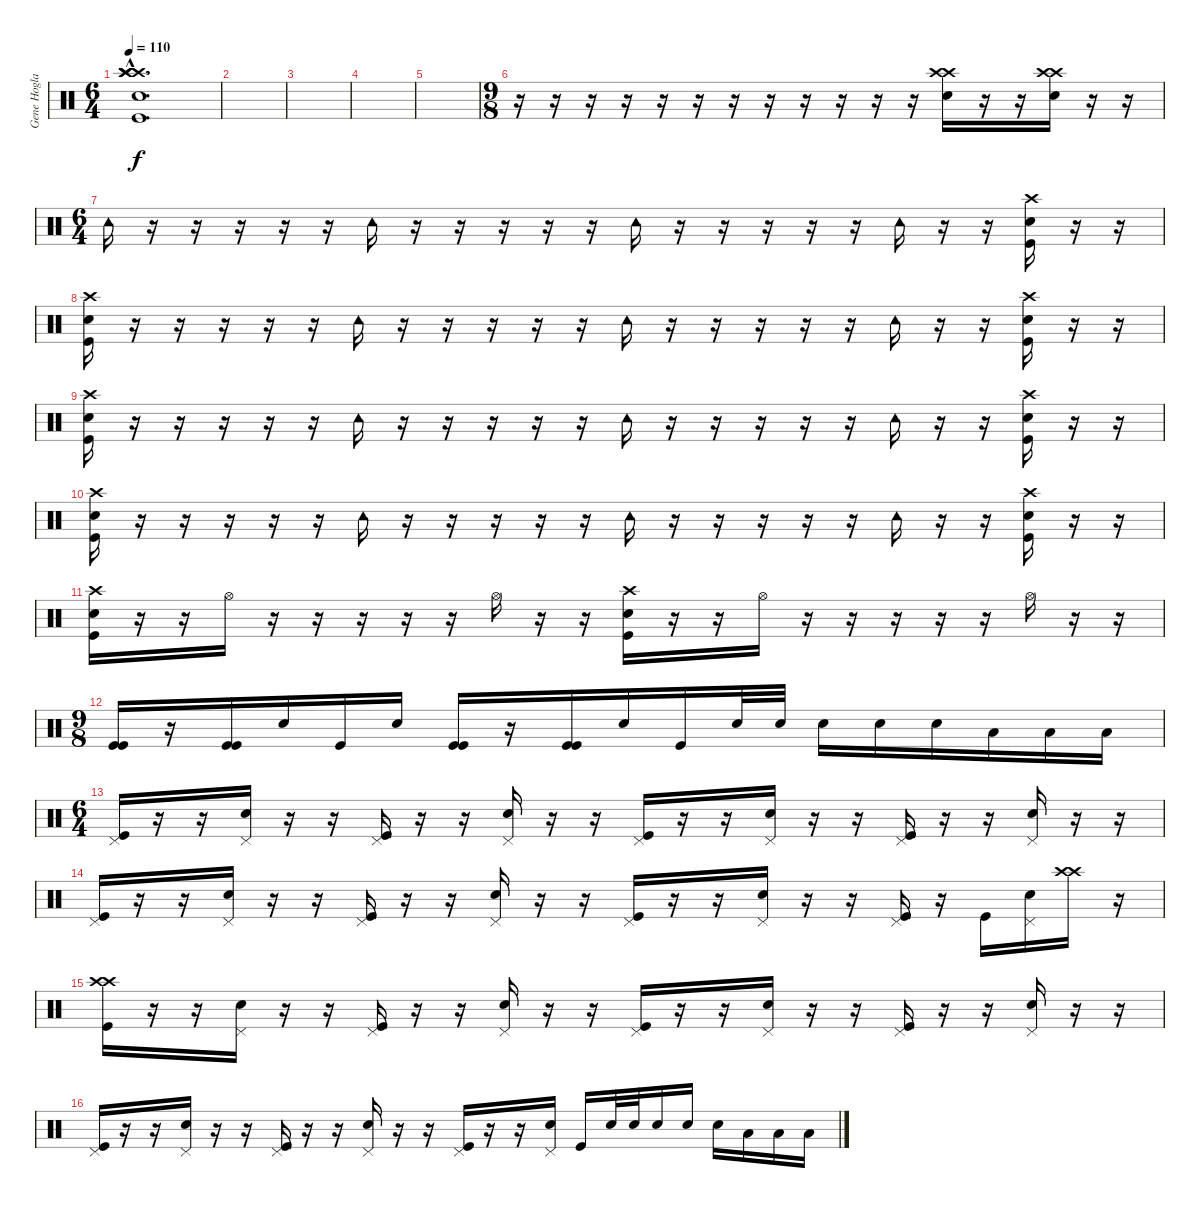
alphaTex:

\track ("Gene Hoglan" "Gene Hogla") {instrument percussion}
\staff {score}
\articulation defaults
\ts (6 4)
\tempo 110
\clef neutral
\ks c
("Crash high (hit)"{hac} "Crash high (hit)"{hac} "Crash high (hit)"{hac} "Crash high (hit)"{hac} "Snare (hit) 2"{hac} "Kick (hit)"{hac}).1{d dy f} |
|
|
|
|
\ts (9 8)
r.16 r.16 r.16 r.16 r.16 r.16 r.16 r.16 r.16 r.16 r.16 r.16 ("Crash high (hit)" "Crash high (hit)" "Snare (hit) 2").16 r.16 r.16 ("Crash high (hit)" "Crash high (hit)" "Snare (hit) 2").16 r.16 r.16 |
\ts (6 4)
"Tambourine (hit)".16 r.16 r.16 r.16 r.16 r.16 "Tambourine (hit)".16 r.16 r.16 r.16 r.16 r.16 "Tambourine (hit)".16 r.16 r.16 r.16 r.16 r.16 "Tambourine (hit)".16 r.16 r.16 ("Crash high (hit)" "Snare (hit) 2" "Kick (hit)").16 r.16 r.16 |
("Crash high (hit)" "Snare (hit) 2" "Kick (hit)").16 r.16 r.16 r.16 r.16 r.16 "Tambourine (hit)".16 r.16 r.16 r.16 r.16 r.16 "Tambourine (hit)".16 r.16 r.16 r.16 r.16 r.16 "Tambourine (hit)".16 r.16 r.16 ("Crash high (hit)" "Snare (hit) 2" "Kick (hit)").16 r.16 r.16 |
("Crash high (hit)" "Snare (hit) 2" "Kick (hit)").16 r.16 r.16 r.16 r.16 r.16 "Tambourine (hit)".16 r.16 r.16 r.16 r.16 r.16 "Tambourine (hit)".16 r.16 r.16 r.16 r.16 r.16 "Tambourine (hit)".16 r.16 r.16 ("Crash high (hit)" "Snare (hit) 2" "Kick (hit)").16 r.16 r.16 |
("Crash high (hit)" "Snare (hit) 2" "Kick (hit)").16 r.16 r.16 r.16 r.16 r.16 "Tambourine (hit)".16 r.16 r.16 r.16 r.16 r.16 "Tambourine (hit)".16 r.16 r.16 r.16 r.16 r.16 "Tambourine (hit)".16 r.16 r.16 ("Crash high (hit)" "Snare (hit) 2" "Kick (hit)").16 r.16 r.16 |
("Crash high (hit)" "Snare (hit) 2" "Kick (hit)").16 r.16 r.16 "Hi-Hat (open)".16 r.16 r.16 r.16 r.16 r.16 "Hi-Hat (open)".16 r.16 r.16 ("Crash high (hit)" "Snare (hit) 2" "Kick (hit)").16 r.16 r.16 "Hi-Hat (open)".16 r.16 r.16 r.16 r.16 r.16 "Hi-Hat (open)".16 r.16 r.16 |
\ts (9 8)
("Kick (hit)" "Kick (hit)").16 r.16 ("Kick (hit)" "Kick (hit)").16 "Snare (hit) 2".16 "Kick (hit)".16 "Snare (hit) 2".16 ("Kick (hit)" "Kick (hit)").16 r.16 ("Kick (hit)" "Kick (hit)").16 "Snare (hit) 2".16 "Kick (hit)".16 "Snare (hit) 2".32 "Snare (hit) 2".32 "Snare (hit) 2".16 "Snare (hit) 2".16 "Snare (hit) 2".16 "Low Tom (hit)".16 "Low Tom (hit)".16 "Low Tom (hit)".16 |
\ts (6 4)
("Pedal Hi-Hat (hit)" "Kick (hit)").16 r.16 r.16 ("Pedal Hi-Hat (hit)" "Snare (hit) 2").16 r.16 r.16 ("Pedal Hi-Hat (hit)" "Kick (hit)").16 r.16 r.16 ("Pedal Hi-Hat (hit)" "Snare (hit) 2").16 r.16 r.16 ("Pedal Hi-Hat (hit)" "Kick (hit)").16 r.16 r.16 ("Pedal Hi-Hat (hit)" "Snare (hit) 2").16 r.16 r.16 ("Pedal Hi-Hat (hit)" "Kick (hit)").16 r.16 r.16 ("Pedal Hi-Hat (hit)" "Snare (hit) 2").16 r.16 r.16 |
("Pedal Hi-Hat (hit)" "Kick (hit)").16 r.16 r.16 ("Pedal Hi-Hat (hit)" "Snare (hit) 2").16 r.16 r.16 ("Pedal Hi-Hat (hit)" "Kick (hit)").16 r.16 r.16 ("Pedal Hi-Hat (hit)" "Snare (hit) 2").16 r.16 r.16 ("Pedal Hi-Hat (hit)" "Kick (hit)").16 r.16 r.16 ("Pedal Hi-Hat (hit)" "Snare (hit) 2").16 r.16 r.16 ("Pedal Hi-Hat (hit)" "Kick (hit)").16 r.16 "Kick (hit)".16 ("Pedal Hi-Hat (hit)" "Snare (hit) 2").16 ("Crash high (hit)" "Crash high (hit)").16 r.16 |
("Crash high (hit)" "Crash high (hit)" "Kick (hit)").16 r.16 r.16 ("Pedal Hi-Hat (hit)" "Snare (hit) 2").16 r.16 r.16 ("Pedal Hi-Hat (hit)" "Kick (hit)").16 r.16 r.16 ("Pedal Hi-Hat (hit)" "Snare (hit) 2").16 r.16 r.16 ("Pedal Hi-Hat (hit)" "Kick (hit)").16 r.16 r.16 ("Pedal Hi-Hat (hit)" "Snare (hit) 2").16 r.16 r.16 ("Pedal Hi-Hat (hit)" "Kick (hit)").16 r.16 r.16 ("Pedal Hi-Hat (hit)" "Snare (hit) 2").16 r.16 r.16 |
("Pedal Hi-Hat (hit)" "Kick (hit)").16 r.16 r.16 ("Pedal Hi-Hat (hit)" "Snare (hit) 2").16 r.16 r.16 ("Pedal Hi-Hat (hit)" "Kick (hit)").16 r.16 r.16 ("Pedal Hi-Hat (hit)" "Snare (hit) 2").16 r.16 r.16 ("Pedal Hi-Hat (hit)" "Kick (hit)").16 r.16 r.16 ("Pedal Hi-Hat (hit)" "Snare (hit) 2").16 "Kick (hit)".16 "Snare (hit) 2".32 "Snare (hit) 2".32 "Snare (hit) 2".16 "Snare (hit) 2".16 "Snare (hit) 2".16 "Low Tom (hit)".16 "Low Tom (hit)".16 "Low Tom (hit)".16
